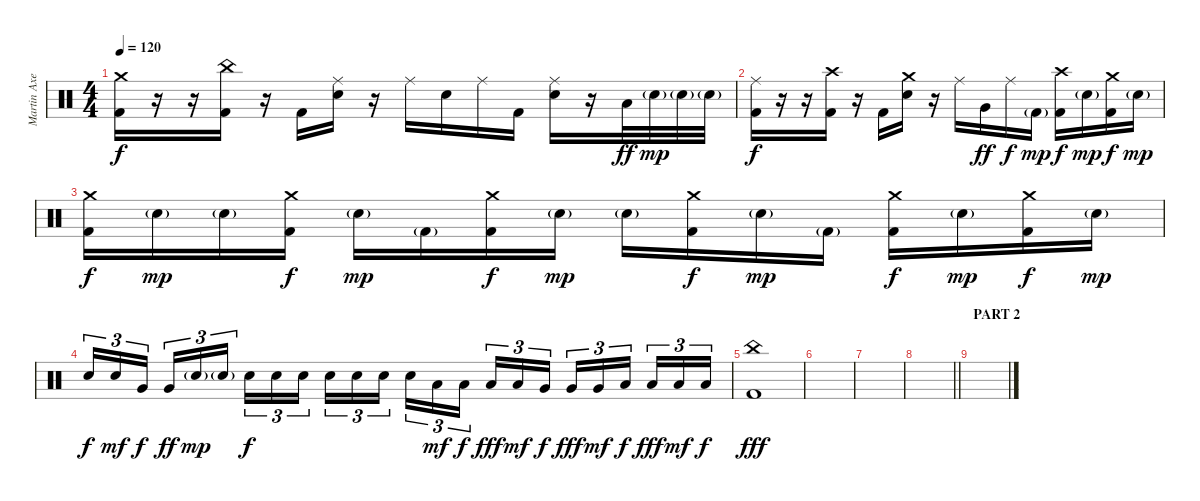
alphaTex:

\track ("Martin Axenrot - Drums" "Martin Axe") {instrument percussion}
\staff {score}
\articulation defaults
\ts (4 4)
\tempo 120
\clef neutral
\ks c
("Crash medium (hit)" "Kick (hit) 2").16{dy f} r.16 r.16 ("China (hit)" "Kick (hit) 2").16 r.16 "Kick (hit) 2".16 ("Ride (middle)" "Snare (hit) 2").16 r.16 "Ride (middle)".16 "Snare (hit) 2".16 "Ride (middle)".16 "Kick (hit) 2".16 ("Ride (middle)" "Snare (hit) 2").16 r.16 "Low Floor Tom (hit)".32{dy ff} "Snare (hit) 2"{g}.32{dy mp} "Snare (hit) 2"{g}.32 "Snare (hit) 2"{g}.32 |
("Ride (middle)" "Kick (hit) 2").16{dy f} r.16 r.16 ("Crash high (hit)" "Kick (hit) 2").16 r.16 "Kick (hit) 2".16 ("Crash medium (hit)" "Snare (hit) 2").16 r.16 "Ride (middle)".16 "Very Low Tom (hit)".16{dy ff} "Ride (middle)".16{dy f} "Kick (hit) 2"{g}.16{dy mp} ("Crash high (hit)" "Kick (hit) 2").16{dy f} "Snare (hit) 2"{g}.16{dy mp} ("Crash medium (hit)" "Kick (hit) 2").16{dy f} "Snare (hit) 2"{g}.16{dy mp} |
("Crash medium (hit)" "Kick (hit) 2").16{dy f} "Snare (hit) 2"{g}.16{dy mp} "Snare (hit) 2"{g}.16 ("Crash medium (hit)" "Kick (hit) 2").16{dy f} "Snare (hit) 2"{g}.16{dy mp} "Kick (hit) 2"{g}.16 ("Crash medium (hit)" "Kick (hit) 2").16{dy f} "Snare (hit) 2"{g}.16{dy mp} "Snare (hit) 2"{g}.16 ("Crash medium (hit)" "Kick (hit) 2").16{dy f} "Snare (hit) 2"{g}.16{dy mp} "Kick (hit) 2"{g}.16 ("Crash medium (hit)" "Kick (hit) 2").16{dy f} "Snare (hit) 2"{g}.16{dy mp} ("Crash medium (hit)" "Kick (hit) 2").16{dy f} "Snare (hit) 2"{g}.16{dy mp} |
"Snare (hit) 2".16{tu (3 2) dy f} "Snare (hit) 2".16{tu (3 2) dy mf} "Very Low Tom (hit)".16{tu (3 2) dy f beam splitsecondary} "Very Low Tom (hit)".16{tu (3 2) dy ff} "Snare (hit) 2"{g}.16{tu (3 2) dy mp} "Snare (hit) 2"{g}.16{tu (3 2)} "Snare (hit) 2".16{tu (3 2) dy f} "Snare (hit) 2".16{tu (3 2)} "Snare (hit) 2".16{tu (3 2) beam splitsecondary} "Snare (hit) 2".16{tu (3 2)} "Snare (hit) 2".16{tu (3 2)} "Snare (hit) 2".16{tu (3 2)} "Snare (hit) 2".16{tu (3 2)} "Low Tom (hit)".16{tu (3 2) dy mf} "Low Tom (hit)".16{tu (3 2) dy f beam splitsecondary} "Low Tom (hit)".16{tu (3 2) dy fff} "Low Tom (hit)".16{tu (3 2) dy mf} "Very Low Tom (hit)".16{tu (3 2) dy f} "Very Low Tom (hit)".16{tu (3 2) dy fff} "Very Low Tom (hit)".16{tu (3 2) dy mf} "Low Floor Tom (hit)".16{tu (3 2) dy f beam splitsecondary} "Low Floor Tom (hit)".16{tu (3 2) dy fff} "Low Floor Tom (hit)".16{tu (3 2) dy mf} "Low Floor Tom (hit)".16{tu (3 2) dy f} |
("China (hit)" "Kick (hit) 2").1{dy fff} |
|
|
\barLineRight lightlight
|
\section ("" "PART 2")
